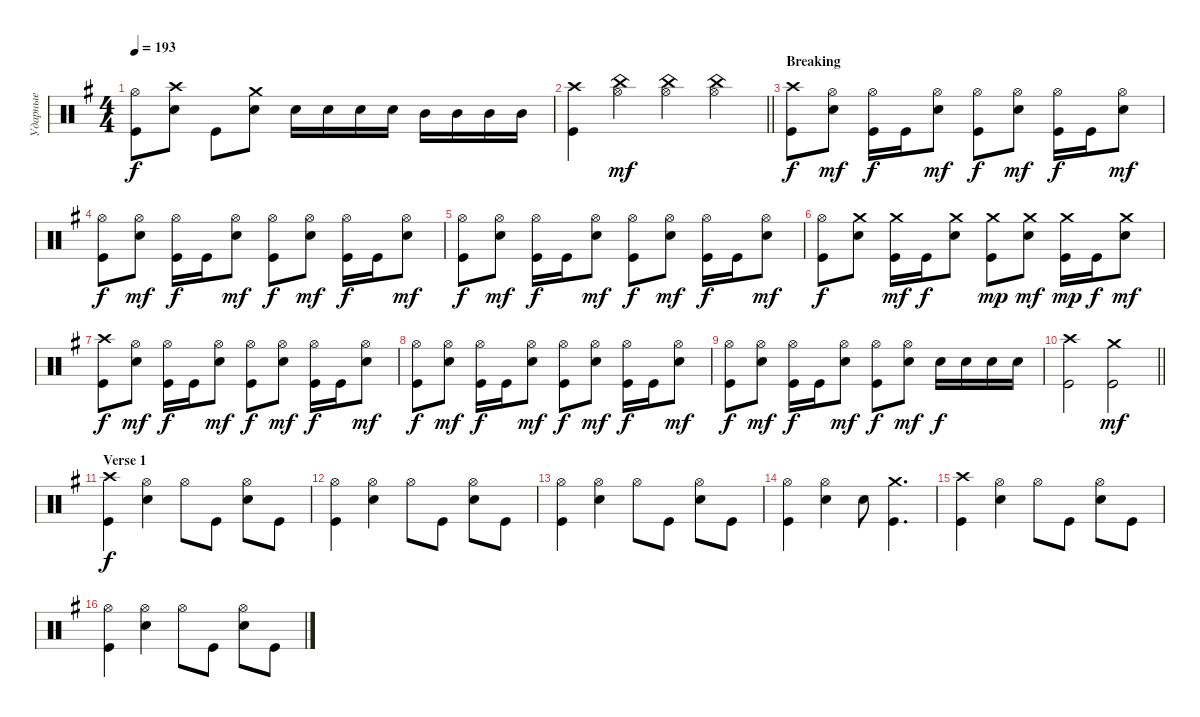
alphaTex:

\track ("Ударные" "Ударные") {instrument percussion}
\staff {score}
\articulation defaults
\ts (4 4)
\tempo 193
\clef neutral
\ks eminor
("Kick (hit)" "Hi-Hat (open)").8{dy f} ("Snare (hit) 2" "Crash high (hit)").8 "Kick (hit)".8 ("Snare (hit) 2" "Crash medium (hit)").8 "Snare (hit) 2".16 "Snare (hit) 2".16 "Snare (hit) 2".16 "Snare (hit) 2".16 "Mid Tom (hit)".16 "Mid Tom (hit)".16 "Mid Tom (hit)".16 "Mid Tom (hit)".16 |
\barLineRight lightlight
("Kick (hit)" "Crash high (hit)").4 ("China (hit)" "Hi-Hat (open)").4{dy mf} ("China (hit)" "Hi-Hat (open)").4 ("China (hit)" "Hi-Hat (open)").4 |
\section ("" "Breaking")
("Kick (hit)" "Crash high (hit)").8{dy f} ("Snare (hit) 2" "Hi-Hat (open)").8{dy mf} ("Kick (hit)" "Hi-Hat (open)").16{dy f} "Kick (hit)".16 ("Snare (hit) 2" "Hi-Hat (open)").8{dy mf} ("Kick (hit)" "Hi-Hat (open)").8{dy f} ("Snare (hit) 2" "Hi-Hat (open)").8{dy mf} ("Kick (hit)" "Hi-Hat (open)").16{dy f} "Kick (hit)".16 ("Snare (hit) 2" "Hi-Hat (open)").8{dy mf} |
("Kick (hit)" "Hi-Hat (open)").8{dy f} ("Snare (hit) 2" "Hi-Hat (open)").8{dy mf} ("Kick (hit)" "Hi-Hat (open)").16{dy f} "Kick (hit)".16 ("Snare (hit) 2" "Hi-Hat (open)").8{dy mf} ("Kick (hit)" "Hi-Hat (open)").8{dy f} ("Snare (hit) 2" "Hi-Hat (open)").8{dy mf} ("Kick (hit)" "Hi-Hat (open)").16{dy f} "Kick (hit)".16 ("Snare (hit) 2" "Hi-Hat (open)").8{dy mf} |
("Kick (hit)" "Hi-Hat (open)").8{dy f} ("Snare (hit) 2" "Hi-Hat (open)").8{dy mf} ("Kick (hit)" "Hi-Hat (open)").16{dy f} "Kick (hit)".16 ("Snare (hit) 2" "Hi-Hat (open)").8{dy mf} ("Kick (hit)" "Hi-Hat (open)").8{dy f} ("Snare (hit) 2" "Hi-Hat (open)").8{dy mf} ("Kick (hit)" "Hi-Hat (open)").16{dy f} "Kick (hit)".16 ("Snare (hit) 2" "Hi-Hat (open)").8{dy mf} |
("Kick (hit)" "Hi-Hat (open)").8{dy f} ("Snare (hit) 2" "Crash medium (hit)").8 ("Kick (hit)" "Crash medium (hit)").16{dy mf} "Kick (hit)".16{dy f} ("Snare (hit) 2" "Crash medium (hit)").8 ("Kick (hit)" "Crash medium (hit)").8{dy mp} ("Snare (hit) 2" "Crash medium (hit)").8{dy mf} ("Kick (hit)" "Crash medium (hit)").16{dy mp} "Kick (hit)".16{dy f} ("Snare (hit) 2" "Crash medium (hit)").8{dy mf} |
("Kick (hit)" "Crash high (hit)").8{dy f} ("Snare (hit) 2" "Hi-Hat (open)").8{dy mf} ("Kick (hit)" "Hi-Hat (open)").16{dy f} "Kick (hit)".16 ("Snare (hit) 2" "Hi-Hat (open)").8{dy mf} ("Kick (hit)" "Hi-Hat (open)").8{dy f} ("Snare (hit) 2" "Hi-Hat (open)").8{dy mf} ("Kick (hit)" "Hi-Hat (open)").16{dy f} "Kick (hit)".16 ("Snare (hit) 2" "Hi-Hat (open)").8{dy mf} |
("Kick (hit)" "Hi-Hat (open)").8{dy f} ("Snare (hit) 2" "Hi-Hat (open)").8{dy mf} ("Kick (hit)" "Hi-Hat (open)").16{dy f} "Kick (hit)".16 ("Snare (hit) 2" "Hi-Hat (open)").8{dy mf} ("Kick (hit)" "Hi-Hat (open)").8{dy f} ("Snare (hit) 2" "Hi-Hat (open)").8{dy mf} ("Kick (hit)" "Hi-Hat (open)").16{dy f} "Kick (hit)".16 ("Snare (hit) 2" "Hi-Hat (open)").8{dy mf} |
("Kick (hit)" "Hi-Hat (open)").8{dy f} ("Snare (hit) 2" "Hi-Hat (open)").8{dy mf} ("Kick (hit)" "Hi-Hat (open)").16{dy f} "Kick (hit)".16 ("Snare (hit) 2" "Hi-Hat (open)").8{dy mf} ("Kick (hit)" "Hi-Hat (open)").8{dy f} ("Snare (hit) 2" "Hi-Hat (open)").8{dy mf} "Snare (hit) 2".16{dy f} "Snare (hit) 2".16 "Snare (hit) 2".16 "Snare (hit) 2".16 |
\barLineRight lightlight
("Kick (hit)" "Crash high (hit)").2 ("Kick (hit)" "Crash medium (hit)").2{dy mf} |
\section ("" "Verse 1")
("Kick (hit)" "Crash high (hit)").4{dy f} ("Snare (hit) 2" "Hi-Hat (open)").4 "Hi-Hat (open)".8 "Kick (hit)".8 ("Snare (hit) 2" "Hi-Hat (open)").8 "Kick (hit)".8 |
("Kick (hit)" "Hi-Hat (open)").4 ("Snare (hit) 2" "Hi-Hat (open)").4 "Hi-Hat (open)".8 "Kick (hit)".8 ("Snare (hit) 2" "Hi-Hat (open)").8 "Kick (hit)".8 |
("Kick (hit)" "Hi-Hat (open)").4 ("Snare (hit) 2" "Hi-Hat (open)").4 "Hi-Hat (open)".8 "Kick (hit)".8 ("Snare (hit) 2" "Hi-Hat (open)").8 "Kick (hit)".8 |
("Kick (hit)" "Hi-Hat (open)").4 ("Snare (hit) 2" "Hi-Hat (open)").4 "Snare (hit) 2".8 ("Kick (hit)" "Crash medium (hit)").4{d} |
("Kick (hit)" "Crash high (hit)").4 ("Snare (hit) 2" "Hi-Hat (open)").4 "Hi-Hat (open)".8 "Kick (hit)".8 ("Snare (hit) 2" "Hi-Hat (open)").8 "Kick (hit)".8 |
("Kick (hit)" "Hi-Hat (open)").4 ("Snare (hit) 2" "Hi-Hat (open)").4 "Hi-Hat (open)".8 "Kick (hit)".8 ("Snare (hit) 2" "Hi-Hat (open)").8 "Kick (hit)".8
